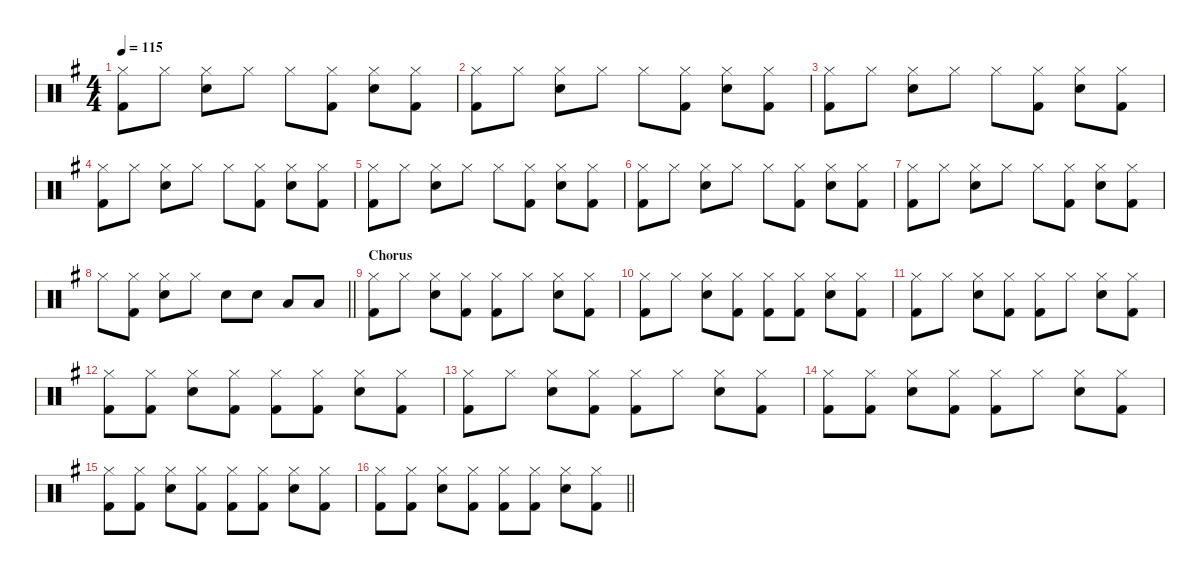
\defaultSystemsLayout 8
\hideDynamics
\bracketExtendMode nobrackets
\singleTrackTrackNamePolicy hidden
\multiTrackTrackNamePolicy hidden
\otherSystemsTrackNameOrientation horizontal
\track ("Drums" "drm.") {defaultSystemsLayout 4 instrument percussion}
\staff {score}
\articulation defaults
\ts (4 4)
\tempo 115
\clef neutral
\ks g
("Hi-Hat (closed)"{acc forcenatural} "Kick (hit) 2"{acc forcenatural}).8{dy f beam Down} "Hi-Hat (closed)"{acc forcenatural}.8{beam Down} ("Hi-Hat (closed)"{acc forcenatural} "Snare (hit) 2"{acc forcenatural}).8{beam Down} "Hi-Hat (closed)"{acc forcenatural}.8{beam Down} "Hi-Hat (closed)"{acc forcenatural}.8{beam Down} ("Hi-Hat (closed)"{acc forcenatural} "Kick (hit) 2"{acc forcenatural}).8{beam Down} ("Hi-Hat (closed)"{acc forcenatural} "Snare (hit) 2"{acc forcenatural}).8{beam Down} ("Hi-Hat (closed)"{acc forcenatural} "Kick (hit) 2"{acc forcenatural}).8{beam Down} |
("Hi-Hat (closed)"{acc forcenatural} "Kick (hit) 2"{acc forcenatural}).8{beam Down} "Hi-Hat (closed)"{acc forcenatural}.8{beam Down} ("Hi-Hat (closed)"{acc forcenatural} "Snare (hit) 2"{acc forcenatural}).8{beam Down} "Hi-Hat (closed)"{acc forcenatural}.8{beam Down} "Hi-Hat (closed)"{acc forcenatural}.8{beam Down} ("Hi-Hat (closed)"{acc forcenatural} "Kick (hit) 2"{acc forcenatural}).8{beam Down} ("Hi-Hat (closed)"{acc forcenatural} "Snare (hit) 2"{acc forcenatural}).8{beam Down} ("Hi-Hat (closed)"{acc forcenatural} "Kick (hit) 2"{acc forcenatural}).8{beam Down} |
("Hi-Hat (closed)"{acc forcenatural} "Kick (hit) 2"{acc forcenatural}).8{beam Down} "Hi-Hat (closed)"{acc forcenatural}.8{beam Down} ("Hi-Hat (closed)"{acc forcenatural} "Snare (hit) 2"{acc forcenatural}).8{beam Down} "Hi-Hat (closed)"{acc forcenatural}.8{beam Down} "Hi-Hat (closed)"{acc forcenatural}.8{beam Down} ("Hi-Hat (closed)"{acc forcenatural} "Kick (hit) 2"{acc forcenatural}).8{beam Down} ("Hi-Hat (closed)"{acc forcenatural} "Snare (hit) 2"{acc forcenatural}).8{beam Down} ("Hi-Hat (closed)"{acc forcenatural} "Kick (hit) 2"{acc forcenatural}).8{beam Down} |
("Hi-Hat (closed)"{acc forcenatural} "Kick (hit) 2"{acc forcenatural}).8{beam Down} "Hi-Hat (closed)"{acc forcenatural}.8{beam Down} ("Hi-Hat (closed)"{acc forcenatural} "Snare (hit) 2"{acc forcenatural}).8{beam Down} "Hi-Hat (closed)"{acc forcenatural}.8{beam Down} "Hi-Hat (closed)"{acc forcenatural}.8{beam Down} ("Hi-Hat (closed)"{acc forcenatural} "Kick (hit) 2"{acc forcenatural}).8{beam Down} ("Hi-Hat (closed)"{acc forcenatural} "Snare (hit) 2"{acc forcenatural}).8{beam Down} ("Hi-Hat (closed)"{acc forcenatural} "Kick (hit) 2"{acc forcenatural}).8{beam Down} |
("Hi-Hat (closed)"{acc forcenatural} "Kick (hit) 2"{acc forcenatural}).8{beam Down} "Hi-Hat (closed)"{acc forcenatural}.8{beam Down} ("Hi-Hat (closed)"{acc forcenatural} "Snare (hit) 2"{acc forcenatural}).8{beam Down} "Hi-Hat (closed)"{acc forcenatural}.8{beam Down} "Hi-Hat (closed)"{acc forcenatural}.8{beam Down} ("Hi-Hat (closed)"{acc forcenatural} "Kick (hit) 2"{acc forcenatural}).8{beam Down} ("Hi-Hat (closed)"{acc forcenatural} "Snare (hit) 2"{acc forcenatural}).8{beam Down} ("Hi-Hat (closed)"{acc forcenatural} "Kick (hit) 2"{acc forcenatural}).8{beam Down} |
("Hi-Hat (closed)"{acc forcenatural} "Kick (hit) 2"{acc forcenatural}).8{beam Down} "Hi-Hat (closed)"{acc forcenatural}.8{beam Down} ("Hi-Hat (closed)"{acc forcenatural} "Snare (hit) 2"{acc forcenatural}).8{beam Down} "Hi-Hat (closed)"{acc forcenatural}.8{beam Down} "Hi-Hat (closed)"{acc forcenatural}.8{beam Down} ("Hi-Hat (closed)"{acc forcenatural} "Kick (hit) 2"{acc forcenatural}).8{beam Down} ("Hi-Hat (closed)"{acc forcenatural} "Snare (hit) 2"{acc forcenatural}).8{beam Down} ("Hi-Hat (closed)"{acc forcenatural} "Kick (hit) 2"{acc forcenatural}).8{beam Down} |
("Hi-Hat (closed)"{acc forcenatural} "Kick (hit) 2"{acc forcenatural}).8{beam Down} "Hi-Hat (closed)"{acc forcenatural}.8{beam Down} ("Hi-Hat (closed)"{acc forcenatural} "Snare (hit) 2"{acc forcenatural}).8{beam Down} "Hi-Hat (closed)"{acc forcenatural}.8{beam Down} "Hi-Hat (closed)"{acc forcenatural}.8{beam Down} ("Hi-Hat (closed)"{acc forcenatural} "Kick (hit) 2"{acc forcenatural}).8{beam Down} ("Hi-Hat (closed)"{acc forcenatural} "Snare (hit) 2"{acc forcenatural}).8{beam Down} ("Hi-Hat (closed)"{acc forcenatural} "Kick (hit) 2"{acc forcenatural}).8{beam Down} |
\barLineRight lightlight "Hi-Hat (closed)"{acc forcenatural}.8{beam Down}
("Hi-Hat (closed)"{acc forcenatural} "Kick (hit) 2"{acc forcenatural}).8{beam Down} ("Hi-Hat (closed)"{acc forcenatural} "Snare (hit) 2"{acc forcenatural}).8{beam Down} "Hi-Hat (closed)"{acc forcenatural}.8{beam Down} "Snare (hit) 2"{acc forcenatural}.8{beam Down} "Snare (hit) 2"{acc forcenatural}.8{beam Down} "Low Tom (hit)"{acc forcenatural}.8{beam Up} "Low Tom (hit)"{acc forcenatural}.8{beam Up} |
\section ("" "Chorus")
("Hi-Hat (closed)"{acc forcenatural} "Kick (hit) 2"{acc forcenatural}).8{beam Down} "Hi-Hat (closed)"{acc forcenatural}.8{beam Down} ("Hi-Hat (closed)"{acc forcenatural} "Snare (hit) 2"{acc forcenatural}).8{beam Down} ("Hi-Hat (closed)"{acc forcenatural} "Kick (hit) 2"{acc forcenatural}).8{beam Down} ("Hi-Hat (closed)"{acc forcenatural} "Kick (hit) 2"{acc forcenatural}).8{beam Down} "Hi-Hat (closed)"{acc forcenatural}.8{beam Down} ("Hi-Hat (closed)"{acc forcenatural} "Snare (hit) 2"{acc forcenatural}).8{beam Down} ("Hi-Hat (closed)"{acc forcenatural} "Kick (hit) 2"{acc forcenatural}).8{beam Down} |
("Hi-Hat (closed)"{acc forcenatural} "Kick (hit) 2"{acc forcenatural}).8{beam Down} "Hi-Hat (closed)"{acc forcenatural}.8{beam Down} ("Hi-Hat (closed)"{acc forcenatural} "Snare (hit) 2"{acc forcenatural}).8{beam Down} ("Hi-Hat (closed)"{acc forcenatural} "Kick (hit) 2"{acc forcenatural}).8{beam Down} ("Hi-Hat (closed)"{acc forcenatural} "Kick (hit) 2"{acc forcenatural}).8{beam Down} ("Hi-Hat (closed)"{acc forcenatural} "Kick (hit) 2"{acc forcenatural}).8{beam Down} ("Hi-Hat (closed)"{acc forcenatural} "Snare (hit) 2"{acc forcenatural}).8{beam Down} ("Hi-Hat (closed)"{acc forcenatural} "Kick (hit) 2"{acc forcenatural}).8{beam Down} |
("Hi-Hat (closed)"{acc forcenatural} "Kick (hit) 2"{acc forcenatural}).8{beam Down} "Hi-Hat (closed)"{acc forcenatural}.8{beam Down} ("Hi-Hat (closed)"{acc forcenatural} "Snare (hit) 2"{acc forcenatural}).8{beam Down} ("Hi-Hat (closed)"{acc forcenatural} "Kick (hit) 2"{acc forcenatural}).8{beam Down} ("Hi-Hat (closed)"{acc forcenatural} "Kick (hit) 2"{acc forcenatural}).8{beam Down} "Hi-Hat (closed)"{acc forcenatural}.8{beam Down} ("Hi-Hat (closed)"{acc forcenatural} "Snare (hit) 2"{acc forcenatural}).8{beam Down} ("Hi-Hat (closed)"{acc forcenatural} "Kick (hit) 2"{acc forcenatural}).8{beam Down} |
("Hi-Hat (closed)"{acc forcenatural} "Kick (hit) 2"{acc forcenatural}).8{beam Down} ("Hi-Hat (closed)"{acc forcenatural} "Kick (hit) 2"{acc forcenatural}).8{beam Down} ("Hi-Hat (closed)"{acc forcenatural} "Snare (hit) 2"{acc forcenatural}).8{beam Down} ("Hi-Hat (closed)"{acc forcenatural} "Kick (hit) 2"{acc forcenatural}).8{beam Down} ("Hi-Hat (closed)"{acc forcenatural} "Kick (hit) 2"{acc forcenatural}).8{beam Down} ("Hi-Hat (closed)"{acc forcenatural} "Kick (hit) 2"{acc forcenatural}).8{beam Down} ("Hi-Hat (closed)"{acc forcenatural} "Snare (hit) 2"{acc forcenatural}).8{beam Down} ("Hi-Hat (closed)"{acc forcenatural} "Kick (hit) 2"{acc forcenatural}).8{beam Down} |
("Hi-Hat (closed)"{acc forcenatural} "Kick (hit) 2"{acc forcenatural}).8{beam Down} "Hi-Hat (closed)"{acc forcenatural}.8{beam Down} ("Hi-Hat (closed)"{acc forcenatural} "Snare (hit) 2"{acc forcenatural}).8{beam Down} ("Hi-Hat (closed)"{acc forcenatural} "Kick (hit) 2"{acc forcenatural}).8{beam Down} ("Hi-Hat (closed)"{acc forcenatural} "Kick (hit) 2"{acc forcenatural}).8{beam Down} "Hi-Hat (closed)"{acc forcenatural}.8{beam Down} ("Hi-Hat (closed)"{acc forcenatural} "Snare (hit) 2"{acc forcenatural}).8{beam Down} ("Hi-Hat (closed)"{acc forcenatural} "Kick (hit) 2"{acc forcenatural}).8{beam Down} |
("Hi-Hat (closed)"{acc forcenatural} "Kick (hit) 2"{acc forcenatural}).8{beam Down} ("Hi-Hat (closed)"{acc forcenatural} "Kick (hit) 2"{acc forcenatural}).8{beam Down} ("Hi-Hat (closed)"{acc forcenatural} "Snare (hit) 2"{acc forcenatural}).8{beam Down} ("Hi-Hat (closed)"{acc forcenatural} "Kick (hit) 2"{acc forcenatural}).8{beam Down} ("Hi-Hat (closed)"{acc forcenatural} "Kick (hit) 2"{acc forcenatural}).8{beam Down} "Hi-Hat (closed)"{acc forcenatural}.8{beam Down} ("Hi-Hat (closed)"{acc forcenatural} "Snare (hit) 2"{acc forcenatural}).8{beam Down} ("Hi-Hat (closed)"{acc forcenatural} "Kick (hit) 2"{acc forcenatural}).8{beam Down} |
("Hi-Hat (closed)"{acc forcenatural} "Kick (hit) 2"{acc forcenatural}).8{beam Down} ("Hi-Hat (closed)"{acc forcenatural} "Kick (hit) 2"{acc forcenatural}).8{beam Down} ("Hi-Hat (closed)"{acc forcenatural} "Snare (hit) 2"{acc forcenatural}).8{beam Down} ("Hi-Hat (closed)"{acc forcenatural} "Kick (hit) 2"{acc forcenatural}).8{beam Down} ("Hi-Hat (closed)"{acc forcenatural} "Kick (hit) 2"{acc forcenatural}).8{beam Down} ("Hi-Hat (closed)"{acc forcenatural} "Kick (hit) 2"{acc forcenatural}).8{beam Down} ("Hi-Hat (closed)"{acc forcenatural} "Snare (hit) 2"{acc forcenatural}).8{beam Down} ("Hi-Hat (closed)"{acc forcenatural} "Kick (hit) 2"{acc forcenatural}).8{beam Down} |
\barLineRight lightlight
("Hi-Hat (closed)"{acc forcenatural} "Kick (hit) 2"{acc forcenatural}).8{beam Down} ("Hi-Hat (closed)"{acc forcenatural} "Kick (hit) 2"{acc forcenatural}).8{beam Down} ("Hi-Hat (closed)"{acc forcenatural} "Snare (hit) 2"{acc forcenatural}).8{beam Down} ("Hi-Hat (closed)"{acc forcenatural} "Kick (hit) 2"{acc forcenatural}).8{beam Down} ("Hi-Hat (closed)"{acc forcenatural} "Kick (hit) 2"{acc forcenatural}).8{beam Down} ("Hi-Hat (closed)"{acc forcenatural} "Kick (hit) 2"{acc forcenatural}).8{beam Down} ("Hi-Hat (closed)"{acc forcenatural} "Snare (hit) 2"{acc forcenatural}).8{beam Down} ("Hi-Hat (closed)"{acc forcenatural} "Kick (hit) 2"{acc forcenatural}).8{beam Down}
